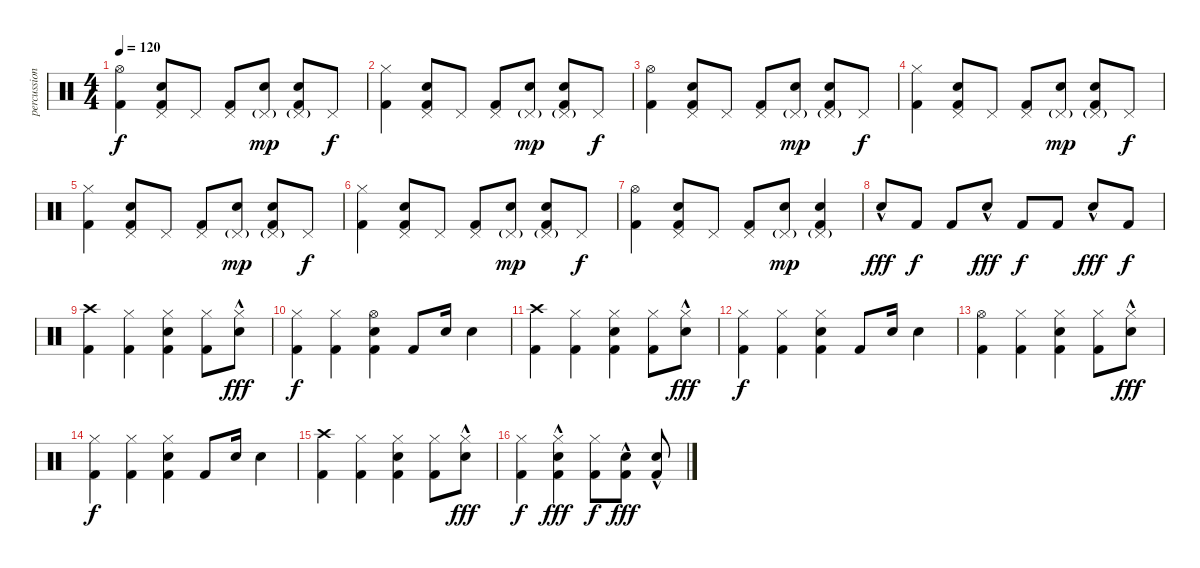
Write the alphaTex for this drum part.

\track ("percussion" "percussion") {instrument percussion}
\staff {score}
\articulation defaults
\ts (4 4)
\tempo 120
\clef neutral
\ks c
("Hi-Hat (open)" "Kick (hit) 2").4{dy f} ("Pedal Hi-Hat (hit)" "Electric Snare (hit)" "Kick (hit) 2").8 "Pedal Hi-Hat (hit)".8 ("Pedal Hi-Hat (hit)" "Kick (hit) 2").8 ("Pedal Hi-Hat (hit)"{g} "Electric Snare (hit)").8{dy mp} ("Pedal Hi-Hat (hit)"{g} "Electric Snare (hit)" "Kick (hit) 2").8 "Pedal Hi-Hat (hit)".8{dy f} |
("Hi-Hat (closed)" "Kick (hit) 2").4 ("Pedal Hi-Hat (hit)" "Electric Snare (hit)" "Kick (hit) 2").8 "Pedal Hi-Hat (hit)".8 ("Pedal Hi-Hat (hit)" "Kick (hit) 2").8 ("Pedal Hi-Hat (hit)"{g} "Electric Snare (hit)").8{dy mp} ("Pedal Hi-Hat (hit)"{g} "Electric Snare (hit)" "Kick (hit) 2").8 "Pedal Hi-Hat (hit)".8{dy f} |
("Hi-Hat (open)" "Kick (hit) 2").4 ("Pedal Hi-Hat (hit)" "Electric Snare (hit)" "Kick (hit) 2").8 "Pedal Hi-Hat (hit)".8 ("Pedal Hi-Hat (hit)" "Kick (hit) 2").8 ("Pedal Hi-Hat (hit)"{g} "Electric Snare (hit)").8{dy mp} ("Pedal Hi-Hat (hit)"{g} "Electric Snare (hit)" "Kick (hit) 2").8 "Pedal Hi-Hat (hit)".8{dy f} |
("Hi-Hat (closed)" "Kick (hit) 2").4 ("Pedal Hi-Hat (hit)" "Electric Snare (hit)" "Kick (hit) 2").8 "Pedal Hi-Hat (hit)".8 ("Pedal Hi-Hat (hit)" "Kick (hit) 2").8 ("Pedal Hi-Hat (hit)"{g} "Electric Snare (hit)").8{dy mp} ("Pedal Hi-Hat (hit)"{g} "Electric Snare (hit)" "Kick (hit) 2").8 "Pedal Hi-Hat (hit)".8{dy f} |
("Hi-Hat (closed)" "Kick (hit) 2").4 ("Pedal Hi-Hat (hit)" "Electric Snare (hit)" "Kick (hit) 2").8 "Pedal Hi-Hat (hit)".8 ("Pedal Hi-Hat (hit)" "Kick (hit) 2").8 ("Pedal Hi-Hat (hit)"{g} "Electric Snare (hit)").8{dy mp} ("Pedal Hi-Hat (hit)"{g} "Electric Snare (hit)" "Kick (hit) 2").8 "Pedal Hi-Hat (hit)".8{dy f} |
("Hi-Hat (closed)" "Kick (hit) 2").4 ("Pedal Hi-Hat (hit)" "Electric Snare (hit)" "Kick (hit) 2").8 "Pedal Hi-Hat (hit)".8 ("Pedal Hi-Hat (hit)" "Kick (hit) 2").8 ("Pedal Hi-Hat (hit)"{g} "Electric Snare (hit)").8{dy mp} ("Pedal Hi-Hat (hit)"{g} "Electric Snare (hit)" "Kick (hit) 2").8 "Pedal Hi-Hat (hit)".8{dy f} |
("Hi-Hat (open)" "Kick (hit) 2").4 ("Pedal Hi-Hat (hit)" "Electric Snare (hit)" "Kick (hit) 2").8 "Pedal Hi-Hat (hit)".8 ("Pedal Hi-Hat (hit)" "Kick (hit) 2").8 ("Pedal Hi-Hat (hit)"{g} "Electric Snare (hit)").8{dy mp} ("Pedal Hi-Hat (hit)"{g} "Electric Snare (hit)" "Kick (hit) 2").4 |
"Electric Snare (hit)"{hac}.8{dy fff} "Kick (hit) 2".8{dy f} "Kick (hit) 2".8 "Electric Snare (hit)"{hac}.8{dy fff} "Kick (hit) 2".8{dy f} "Kick (hit) 2".8 "Electric Snare (hit)"{hac}.8{dy fff} "Kick (hit) 2".8{dy f} |
("Crash high (hit)" "Kick (hit) 2").4 ("Hi-Hat (closed)" "Kick (hit) 2").4 ("Hi-Hat (closed)" "Electric Snare (hit)" "Kick (hit) 2").4 ("Hi-Hat (closed)" "Kick (hit) 2").8 ("Hi-Hat (closed)" "Electric Snare (hit)"{hac}).8{dy fff} |
("Hi-Hat (closed)" "Kick (hit) 2").4{dy f} ("Hi-Hat (closed)" "Kick (hit) 2").4 ("Hi-Hat (open)" "Electric Snare (hit)" "Kick (hit) 2").4 "Kick (hit) 2".8 "Electric Snare (hit)".16 "Electric Snare (hit)".4 |
("Crash high (hit)" "Kick (hit) 2").4 ("Hi-Hat (closed)" "Kick (hit) 2").4 ("Hi-Hat (closed)" "Electric Snare (hit)" "Kick (hit) 2").4 ("Hi-Hat (closed)" "Kick (hit) 2").8 ("Hi-Hat (closed)" "Electric Snare (hit)"{hac}).8{dy fff} |
("Hi-Hat (closed)" "Kick (hit) 2").4{dy f} ("Hi-Hat (closed)" "Kick (hit) 2").4 ("Hi-Hat (closed)" "Electric Snare (hit)" "Kick (hit) 2").4 "Kick (hit) 2".8 "Electric Snare (hit)".16 "Electric Snare (hit)".4 |
("Hi-Hat (open)" "Kick (hit) 2").4 ("Hi-Hat (closed)" "Kick (hit) 2").4 ("Hi-Hat (closed)" "Electric Snare (hit)" "Kick (hit) 2").4 ("Hi-Hat (closed)" "Kick (hit) 2").8 ("Hi-Hat (closed)" "Electric Snare (hit)"{hac}).8{dy fff} |
("Hi-Hat (closed)" "Kick (hit) 2").4{dy f} ("Hi-Hat (closed)" "Kick (hit) 2").4 ("Hi-Hat (closed)" "Electric Snare (hit)" "Kick (hit) 2").4 "Kick (hit) 2".8 "Electric Snare (hit)".16 "Electric Snare (hit)".4 |
("Crash high (hit)" "Kick (hit) 2").4 ("Hi-Hat (closed)" "Kick (hit) 2").4 ("Hi-Hat (closed)" "Electric Snare (hit)" "Kick (hit) 2").4 ("Hi-Hat (closed)" "Kick (hit) 2").8 ("Hi-Hat (closed)" "Electric Snare (hit)"{hac}).8{dy fff} |
("Hi-Hat (closed)" "Kick (hit) 2").4{dy f} ("Hi-Hat (closed)" "Electric Snare (hit)"{hac} "Kick (hit) 2").4{dy fff} ("Hi-Hat (closed)" "Kick (hit) 2").8{dy f} ("Electric Snare (hit)"{hac} "Kick (hit) 2").8{dy fff} ("Electric Snare (hit)"{hac} "Kick (hit) 2").8
